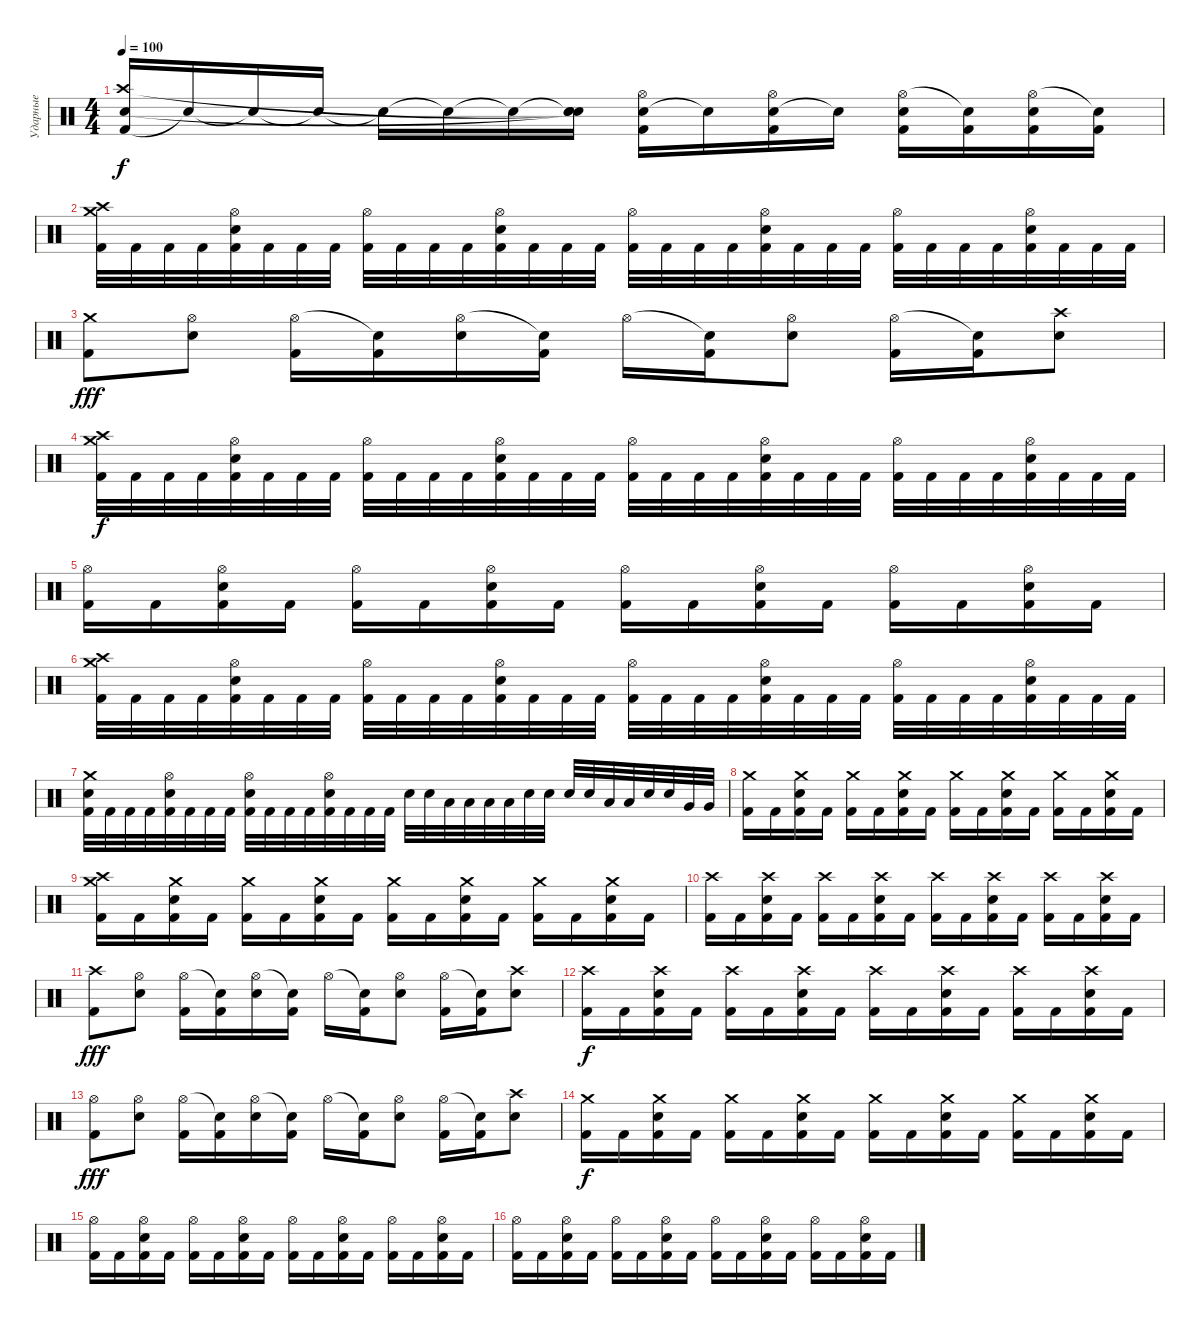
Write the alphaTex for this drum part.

\track ("Ударные" "Ударные") {instrument percussion}
\staff {score}
\articulation defaults
\ts (4 4)
\tempo 100
\clef neutral
\ks c
("Kick (hit) 2"{t} "Crash high (hit)"{t} "Electric Snare (hit)"{t}).16{dy f} "Snare (hit)"{t}.16 "Snare (hit)"{t}.16 "Snare (hit)"{t}.16 "Snare (hit)"{t}.16 "Snare (hit)"{t}.16 "Snare (hit)"{t}.16 ("Snare (hit)"{t} "Snare (hit)"{t} "Snare (hit)"{t}).16 ("Snare (hit) 2" "Hi-Hat (open)" "Kick (hit) 2").16 "Snare (hit)"{t}.16 ("Snare (hit) 2" "Hi-Hat (open)" "Kick (hit) 2").16 "Snare (hit)"{t}.16 ("Snare (hit) 2" "Hi-Hat (open)" "Kick (hit) 2").16 ("Kick (hit) 2" "Snare (hit)"{t}).16 ("Snare (hit) 2" "Hi-Hat (open)" "Kick (hit) 2").16 ("Kick (hit) 2" "Snare (hit)"{t}).16 |
("Kick (hit) 2" "Crash high (hit)" "Crash medium (hit)").32 "Kick (hit) 2".32 "Kick (hit) 2".32 "Kick (hit) 2".32 ("Kick (hit) 2" "Snare (hit) 2" "Hi-Hat (open)").32 "Kick (hit) 2".32 "Kick (hit) 2".32 "Kick (hit) 2".32 ("Kick (hit) 2" "Hi-Hat (open)").32 "Kick (hit) 2".32 "Kick (hit) 2".32 "Kick (hit) 2".32 ("Kick (hit) 2" "Snare (hit) 2" "Hi-Hat (open)").32 "Kick (hit) 2".32 "Kick (hit) 2".32 "Kick (hit) 2".32 ("Kick (hit) 2" "Hi-Hat (open)").32 "Kick (hit) 2".32 "Kick (hit) 2".32 "Kick (hit) 2".32 ("Kick (hit) 2" "Snare (hit) 2" "Hi-Hat (open)").32 "Kick (hit) 2".32 "Kick (hit) 2".32 "Kick (hit) 2".32 ("Kick (hit) 2" "Hi-Hat (open)").32 "Kick (hit) 2".32 "Kick (hit) 2".32 "Kick (hit) 2".32 ("Kick (hit) 2" "Snare (hit) 2" "Hi-Hat (open)").32 "Kick (hit) 2".32 "Kick (hit) 2".32 "Kick (hit) 2".32 |
("Crash medium (hit)" "Kick (hit) 2").8{dy fff} ("Hi-Hat (open)" "Snare (hit) 2").8 ("Hi-Hat (open)" "Kick (hit) 2").16 ("Snare (hit)"{t} "Kick (hit) 2").16 ("Hi-Hat (open)" "Snare (hit) 2").16 ("Snare (hit)"{t} "Kick (hit) 2").16 "Hi-Hat (open)".16 ("Snare (hit)"{t} "Kick (hit) 2").16 ("Hi-Hat (open)" "Snare (hit) 2").8 ("Hi-Hat (open)" "Kick (hit) 2").16 ("Snare (hit)"{t} "Kick (hit) 2").16 ("Crash high (hit)" "Snare (hit) 2").8 |
("Kick (hit) 2" "Crash high (hit)" "Crash medium (hit)").32{dy f} "Kick (hit) 2".32 "Kick (hit) 2".32 "Kick (hit) 2".32 ("Kick (hit) 2" "Snare (hit) 2" "Hi-Hat (open)").32 "Kick (hit) 2".32 "Kick (hit) 2".32 "Kick (hit) 2".32 ("Kick (hit) 2" "Hi-Hat (open)").32 "Kick (hit) 2".32 "Kick (hit) 2".32 "Kick (hit) 2".32 ("Kick (hit) 2" "Snare (hit) 2" "Hi-Hat (open)").32 "Kick (hit) 2".32 "Kick (hit) 2".32 "Kick (hit) 2".32 ("Kick (hit) 2" "Hi-Hat (open)").32 "Kick (hit) 2".32 "Kick (hit) 2".32 "Kick (hit) 2".32 ("Kick (hit) 2" "Snare (hit) 2" "Hi-Hat (open)").32 "Kick (hit) 2".32 "Kick (hit) 2".32 "Kick (hit) 2".32 ("Kick (hit) 2" "Hi-Hat (open)").32 "Kick (hit) 2".32 "Kick (hit) 2".32 "Kick (hit) 2".32 ("Kick (hit) 2" "Snare (hit) 2" "Hi-Hat (open)").32 "Kick (hit) 2".32 "Kick (hit) 2".32 "Kick (hit) 2".32 |
("Hi-Hat (open)" "Kick (hit) 2").16 "Kick (hit) 2".16 ("Snare (hit) 2" "Hi-Hat (open)" "Kick (hit) 2").16 "Kick (hit) 2".16 ("Hi-Hat (open)" "Kick (hit) 2").16 "Kick (hit) 2".16 ("Snare (hit) 2" "Hi-Hat (open)" "Kick (hit) 2").16 "Kick (hit) 2".16 ("Hi-Hat (open)" "Kick (hit) 2").16 "Kick (hit) 2".16 ("Snare (hit) 2" "Hi-Hat (open)" "Kick (hit) 2").16 "Kick (hit) 2".16 ("Hi-Hat (open)" "Kick (hit) 2").16 "Kick (hit) 2".16 ("Snare (hit) 2" "Hi-Hat (open)" "Kick (hit) 2").16 "Kick (hit) 2".16 |
("Kick (hit) 2" "Crash high (hit)" "Crash medium (hit)").32 "Kick (hit) 2".32 "Kick (hit) 2".32 "Kick (hit) 2".32 ("Kick (hit) 2" "Snare (hit) 2" "Hi-Hat (open)").32 "Kick (hit) 2".32 "Kick (hit) 2".32 "Kick (hit) 2".32 ("Kick (hit) 2" "Hi-Hat (open)").32 "Kick (hit) 2".32 "Kick (hit) 2".32 "Kick (hit) 2".32 ("Kick (hit) 2" "Snare (hit) 2" "Hi-Hat (open)").32 "Kick (hit) 2".32 "Kick (hit) 2".32 "Kick (hit) 2".32 ("Kick (hit) 2" "Hi-Hat (open)").32 "Kick (hit) 2".32 "Kick (hit) 2".32 "Kick (hit) 2".32 ("Kick (hit) 2" "Snare (hit) 2" "Hi-Hat (open)").32 "Kick (hit) 2".32 "Kick (hit) 2".32 "Kick (hit) 2".32 ("Kick (hit) 2" "Hi-Hat (open)").32 "Kick (hit) 2".32 "Kick (hit) 2".32 "Kick (hit) 2".32 ("Kick (hit) 2" "Snare (hit) 2" "Hi-Hat (open)").32 "Kick (hit) 2".32 "Kick (hit) 2".32 "Kick (hit) 2".32 |
("Kick (hit) 2" "Snare (hit) 2" "Crash medium (hit)").32 "Kick (hit) 2".32 "Kick (hit) 2".32 "Kick (hit) 2".32 ("Kick (hit) 2" "Snare (hit) 2" "Hi-Hat (open)").32 "Kick (hit) 2".32 "Kick (hit) 2".32 "Kick (hit) 2".32 ("Kick (hit) 2" "Snare (hit) 2" "Hi-Hat (open)").32 "Kick (hit) 2".32 "Kick (hit) 2".32 "Kick (hit) 2".32 ("Kick (hit) 2" "Snare (hit) 2" "Hi-Hat (open)").32 "Kick (hit) 2".32 "Kick (hit) 2".32 "Kick (hit) 2".32 "Snare (hit) 2".32 "Snare (hit) 2".32 "Low Floor Tom (hit)".32 "Low Floor Tom (hit)".32 "Low Floor Tom (hit)".32 "Low Floor Tom (hit)".32 "Snare (hit) 2".32 "Snare (hit) 2".32 "Snare (hit) 2".32 "Snare (hit) 2".32 "Low Floor Tom (hit)".32 "Low Floor Tom (hit)".32 "Snare (hit) 2".32 "Snare (hit) 2".32 "Very Low Tom (hit)".32 "Very Low Tom (hit)".32 |
("Crash medium (hit)" "Kick (hit) 2").16 "Kick (hit) 2".16 ("Snare (hit) 2" "Crash medium (hit)" "Kick (hit) 2").16 "Kick (hit) 2".16 ("Crash medium (hit)" "Kick (hit) 2").16 "Kick (hit) 2".16 ("Snare (hit) 2" "Crash medium (hit)" "Kick (hit) 2").16 "Kick (hit) 2".16 ("Crash medium (hit)" "Kick (hit) 2").16 "Kick (hit) 2".16 ("Snare (hit) 2" "Crash medium (hit)" "Kick (hit) 2").16 "Kick (hit) 2".16 ("Crash medium (hit)" "Kick (hit) 2").16 "Kick (hit) 2".16 ("Snare (hit) 2" "Crash medium (hit)" "Kick (hit) 2").16 "Kick (hit) 2".16 |
("Crash high (hit)" "Crash medium (hit)" "Kick (hit) 2").16 "Kick (hit) 2".16 ("Snare (hit) 2" "Crash medium (hit)" "Kick (hit) 2").16 "Kick (hit) 2".16 ("Crash medium (hit)" "Kick (hit) 2").16 "Kick (hit) 2".16 ("Snare (hit) 2" "Crash medium (hit)" "Kick (hit) 2").16 "Kick (hit) 2".16 ("Crash medium (hit)" "Kick (hit) 2").16 "Kick (hit) 2".16 ("Snare (hit) 2" "Crash medium (hit)" "Kick (hit) 2").16 "Kick (hit) 2".16 ("Crash medium (hit)" "Kick (hit) 2").16 "Kick (hit) 2".16 ("Snare (hit) 2" "Crash medium (hit)" "Kick (hit) 2").16 "Kick (hit) 2".16 |
("Crash high (hit)" "Kick (hit) 2").16 "Kick (hit) 2".16 ("Snare (hit) 2" "Crash high (hit)" "Kick (hit) 2").16 "Kick (hit) 2".16 ("Crash high (hit)" "Kick (hit) 2").16 "Kick (hit) 2".16 ("Snare (hit) 2" "Crash high (hit)" "Kick (hit) 2").16 "Kick (hit) 2".16 ("Crash high (hit)" "Kick (hit) 2").16 "Kick (hit) 2".16 ("Snare (hit) 2" "Crash high (hit)" "Kick (hit) 2").16 "Kick (hit) 2".16 ("Crash high (hit)" "Kick (hit) 2").16 "Kick (hit) 2".16 ("Snare (hit) 2" "Crash high (hit)" "Kick (hit) 2").16 "Kick (hit) 2".16 |
("Crash high (hit)" "Kick (hit) 2").8{dy fff} ("Hi-Hat (open)" "Snare (hit) 2").8 ("Hi-Hat (open)" "Kick (hit) 2").16 ("Snare (hit)"{t} "Kick (hit) 2").16 ("Hi-Hat (open)" "Snare (hit) 2").16 ("Snare (hit)"{t} "Kick (hit) 2").16 "Hi-Hat (open)".16 ("Snare (hit)"{t} "Kick (hit) 2").16 ("Hi-Hat (open)" "Snare (hit) 2").8 ("Hi-Hat (open)" "Kick (hit) 2").16 ("Snare (hit)"{t} "Kick (hit) 2").16 ("Crash high (hit)" "Snare (hit) 2").8 |
("Crash high (hit)" "Kick (hit) 2").16{dy f} "Kick (hit) 2".16 ("Snare (hit) 2" "Crash high (hit)" "Kick (hit) 2").16 "Kick (hit) 2".16 ("Crash high (hit)" "Kick (hit) 2").16 "Kick (hit) 2".16 ("Snare (hit) 2" "Crash high (hit)" "Kick (hit) 2").16 "Kick (hit) 2".16 ("Crash high (hit)" "Kick (hit) 2").16 "Kick (hit) 2".16 ("Snare (hit) 2" "Crash high (hit)" "Kick (hit) 2").16 "Kick (hit) 2".16 ("Crash high (hit)" "Kick (hit) 2").16 "Kick (hit) 2".16 ("Snare (hit) 2" "Crash high (hit)" "Kick (hit) 2").16 "Kick (hit) 2".16 |
("Hi-Hat (open)" "Kick (hit) 2").8{dy fff} ("Hi-Hat (open)" "Snare (hit) 2").8 ("Hi-Hat (open)" "Kick (hit) 2").16 ("Snare (hit)"{t} "Kick (hit) 2").16 ("Hi-Hat (open)" "Snare (hit) 2").16 ("Snare (hit)"{t} "Kick (hit) 2").16 "Hi-Hat (open)".16 ("Snare (hit)"{t} "Kick (hit) 2").16 ("Hi-Hat (open)" "Snare (hit) 2").8 ("Hi-Hat (open)" "Kick (hit) 2").16 ("Snare (hit)"{t} "Kick (hit) 2").16 ("Crash high (hit)" "Snare (hit) 2").8 |
("Crash medium (hit)" "Kick (hit) 2").16{dy f} "Kick (hit) 2".16 ("Snare (hit) 2" "Crash medium (hit)" "Kick (hit) 2").16 "Kick (hit) 2".16 ("Crash medium (hit)" "Kick (hit) 2").16 "Kick (hit) 2".16 ("Snare (hit) 2" "Crash medium (hit)" "Kick (hit) 2").16 "Kick (hit) 2".16 ("Crash medium (hit)" "Kick (hit) 2").16 "Kick (hit) 2".16 ("Snare (hit) 2" "Crash medium (hit)" "Kick (hit) 2").16 "Kick (hit) 2".16 ("Crash medium (hit)" "Kick (hit) 2").16 "Kick (hit) 2".16 ("Snare (hit) 2" "Crash medium (hit)" "Kick (hit) 2").16 "Kick (hit) 2".16 |
("Hi-Hat (open)" "Kick (hit) 2").16 "Kick (hit) 2".16 ("Snare (hit) 2" "Hi-Hat (open)" "Kick (hit) 2").16 "Kick (hit) 2".16 ("Hi-Hat (open)" "Kick (hit) 2").16 "Kick (hit) 2".16 ("Snare (hit) 2" "Hi-Hat (open)" "Kick (hit) 2").16 "Kick (hit) 2".16 ("Hi-Hat (open)" "Kick (hit) 2").16 "Kick (hit) 2".16 ("Snare (hit) 2" "Hi-Hat (open)" "Kick (hit) 2").16 "Kick (hit) 2".16 ("Hi-Hat (open)" "Kick (hit) 2").16 "Kick (hit) 2".16 ("Snare (hit) 2" "Hi-Hat (open)" "Kick (hit) 2").16 "Kick (hit) 2".16 |
("Hi-Hat (open)" "Kick (hit) 2").16 "Kick (hit) 2".16 ("Snare (hit) 2" "Hi-Hat (open)" "Kick (hit) 2").16 "Kick (hit) 2".16 ("Hi-Hat (open)" "Kick (hit) 2").16 "Kick (hit) 2".16 ("Snare (hit) 2" "Hi-Hat (open)" "Kick (hit) 2").16 "Kick (hit) 2".16 ("Hi-Hat (open)" "Kick (hit) 2").16 "Kick (hit) 2".16 ("Snare (hit) 2" "Hi-Hat (open)" "Kick (hit) 2").16 "Kick (hit) 2".16 ("Hi-Hat (open)" "Kick (hit) 2").16 "Kick (hit) 2".16 ("Snare (hit) 2" "Hi-Hat (open)" "Kick (hit) 2").16 "Kick (hit) 2".16
